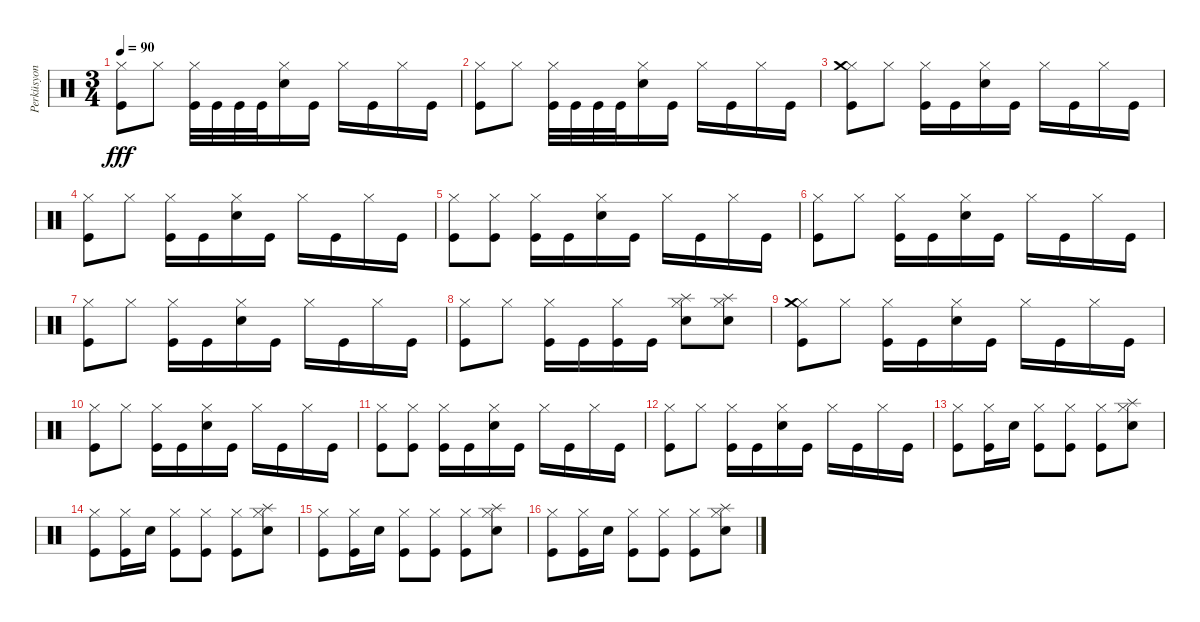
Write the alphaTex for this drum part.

\track ("Perküsyon" "Perküsyon") {instrument percussion}
\staff {score}
\articulation defaults
\ts (3 4)
\tempo 90
\clef neutral
\ks c
("Kick (hit)" "Hi-Hat (closed)").8{dy fff} "Hi-Hat (closed)".8 ("Kick (hit)" "Hi-Hat (closed)").32 "Kick (hit)".32 "Kick (hit)".32 "Kick (hit)".32 ("Electric Snare (hit)" "Hi-Hat (closed)").16 "Kick (hit)".16 "Hi-Hat (closed)".16 "Kick (hit)".16 "Hi-Hat (closed)".16 "Kick (hit)".16 |
("Kick (hit)" "Hi-Hat (closed)").8 "Hi-Hat (closed)".8 ("Kick (hit)" "Hi-Hat (closed)").32 "Kick (hit)".32 "Kick (hit)".32 "Kick (hit)".32 ("Electric Snare (hit)" "Hi-Hat (closed)").16 "Kick (hit)".16 "Hi-Hat (closed)".16 "Kick (hit)".16 "Hi-Hat (closed)".16 "Kick (hit)".16 |
("Kick (hit)" "Hi-Hat (closed)" "Crash medium (hit)").8 "Hi-Hat (closed)".8 ("Kick (hit)" "Hi-Hat (closed)").16 "Kick (hit)".16 ("Electric Snare (hit)" "Hi-Hat (closed)").16 "Kick (hit)".16 "Hi-Hat (closed)".16 "Kick (hit)".16 "Hi-Hat (closed)".16 "Kick (hit)".16 |
("Kick (hit)" "Hi-Hat (closed)").8 "Hi-Hat (closed)".8 ("Kick (hit)" "Hi-Hat (closed)").16 "Kick (hit)".16 ("Electric Snare (hit)" "Hi-Hat (closed)").16 "Kick (hit)".16 "Hi-Hat (closed)".16 "Kick (hit)".16 "Hi-Hat (closed)".16 "Kick (hit)".16 |
("Kick (hit)" "Hi-Hat (closed)").8 ("Kick (hit)" "Hi-Hat (closed)").8 ("Kick (hit)" "Hi-Hat (closed)").16 "Kick (hit)".16 ("Electric Snare (hit)" "Hi-Hat (closed)").16 "Kick (hit)".16 "Hi-Hat (closed)".16 "Kick (hit)".16 "Hi-Hat (closed)".16 "Kick (hit)".16 |
("Kick (hit)" "Hi-Hat (closed)").8 "Hi-Hat (closed)".8 ("Kick (hit)" "Hi-Hat (closed)").16 "Kick (hit)".16 ("Electric Snare (hit)" "Hi-Hat (closed)").16 "Kick (hit)".16 "Hi-Hat (closed)".16 "Kick (hit)".16 "Hi-Hat (closed)".16 "Kick (hit)".16 |
("Kick (hit)" "Hi-Hat (closed)").8 "Hi-Hat (closed)".8 ("Kick (hit)" "Hi-Hat (closed)").16 "Kick (hit)".16 ("Electric Snare (hit)" "Hi-Hat (closed)").16 "Kick (hit)".16 "Hi-Hat (closed)".16 "Kick (hit)".16 "Hi-Hat (closed)".16 "Kick (hit)".16 |
("Kick (hit)" "Hi-Hat (closed)").8 "Hi-Hat (closed)".8 ("Kick (hit)" "Hi-Hat (closed)").16 "Kick (hit)".16 ("Kick (hit)" "Hi-Hat (closed)").16 "Kick (hit)".16 ("Electric Snare (hit)" "Splash (hit)" "Hi-Hat (closed)").8 ("Electric Snare (hit)" "Splash (hit)" "Hi-Hat (closed)").8 |
("Kick (hit)" "Hi-Hat (closed)" "Crash medium (hit)").8 "Hi-Hat (closed)".8 ("Kick (hit)" "Hi-Hat (closed)").16 "Kick (hit)".16 ("Electric Snare (hit)" "Hi-Hat (closed)").16 "Kick (hit)".16 "Hi-Hat (closed)".16 "Kick (hit)".16 "Hi-Hat (closed)".16 "Kick (hit)".16 |
("Kick (hit)" "Hi-Hat (closed)").8 "Hi-Hat (closed)".8 ("Kick (hit)" "Hi-Hat (closed)").16 "Kick (hit)".16 ("Electric Snare (hit)" "Hi-Hat (closed)").16 "Kick (hit)".16 "Hi-Hat (closed)".16 "Kick (hit)".16 "Hi-Hat (closed)".16 "Kick (hit)".16 |
("Kick (hit)" "Hi-Hat (closed)").8 ("Kick (hit)" "Hi-Hat (closed)").8 ("Kick (hit)" "Hi-Hat (closed)").16 "Kick (hit)".16 ("Electric Snare (hit)" "Hi-Hat (closed)").16 "Kick (hit)".16 "Hi-Hat (closed)".16 "Kick (hit)".16 "Hi-Hat (closed)".16 "Kick (hit)".16 |
("Kick (hit)" "Hi-Hat (closed)").8 "Hi-Hat (closed)".8 ("Kick (hit)" "Hi-Hat (closed)").16 "Kick (hit)".16 ("Electric Snare (hit)" "Hi-Hat (closed)").16 "Kick (hit)".16 "Hi-Hat (closed)".16 "Kick (hit)".16 "Hi-Hat (closed)".16 "Kick (hit)".16 |
("Kick (hit)" "Hi-Hat (closed)").8 ("Kick (hit)" "Hi-Hat (closed)").16 "Electric Snare (hit)".16 ("Kick (hit)" "Hi-Hat (closed)").8 ("Kick (hit)" "Hi-Hat (closed)").8 ("Kick (hit)" "Hi-Hat (closed)").8 ("Electric Snare (hit)" "Hi-Hat (closed)" "Splash (hit)").8 |
("Kick (hit)" "Hi-Hat (closed)").8 ("Kick (hit)" "Hi-Hat (closed)").16 "Electric Snare (hit)".16 ("Kick (hit)" "Hi-Hat (closed)").8 ("Kick (hit)" "Hi-Hat (closed)").8 ("Kick (hit)" "Hi-Hat (closed)").8 ("Electric Snare (hit)" "Hi-Hat (closed)" "Splash (hit)").8 |
("Kick (hit)" "Hi-Hat (closed)").8 ("Kick (hit)" "Hi-Hat (closed)").16 "Electric Snare (hit)".16 ("Kick (hit)" "Hi-Hat (closed)").8 ("Kick (hit)" "Hi-Hat (closed)").8 ("Kick (hit)" "Hi-Hat (closed)").8 ("Electric Snare (hit)" "Hi-Hat (closed)" "Splash (hit)").8 |
("Kick (hit)" "Hi-Hat (closed)").8 ("Kick (hit)" "Hi-Hat (closed)").16 "Electric Snare (hit)".16 ("Kick (hit)" "Hi-Hat (closed)").8 ("Kick (hit)" "Hi-Hat (closed)").8 ("Kick (hit)" "Hi-Hat (closed)").8 ("Electric Snare (hit)" "Hi-Hat (closed)" "Splash (hit)").8
